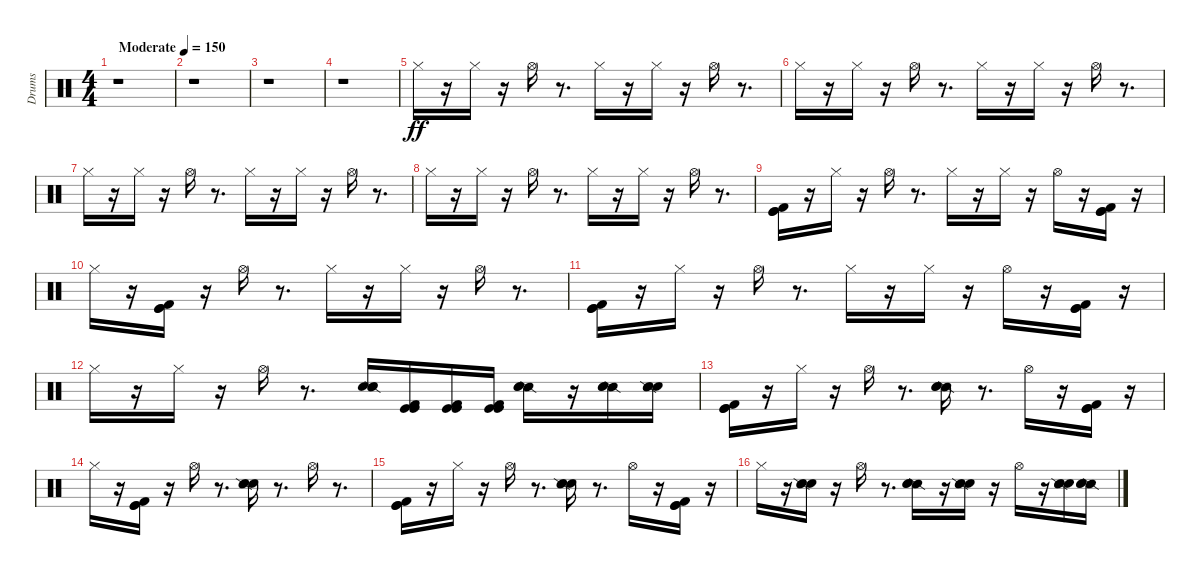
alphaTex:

\track ("Drums" "Drums") {instrument percussion}
\staff {score}
\articulation defaults
\ts (4 4)
\tempo (150 "Moderate")
\clef neutral
\ks c
r.1{dy ff} |
r.1 |
r.1 |
r.1 |
"Hi-Hat (closed)".16 r.16 "Hi-Hat (closed)".16 r.16 "Hi-Hat (open)".16 r.8{d} "Hi-Hat (closed)".16 r.16 "Hi-Hat (closed)".16 r.16 "Hi-Hat (open)".16 r.8{d} |
"Hi-Hat (closed)".16 r.16 "Hi-Hat (closed)".16 r.16 "Hi-Hat (open)".16 r.8{d} "Hi-Hat (closed)".16 r.16 "Hi-Hat (closed)".16 r.16 "Hi-Hat (open)".16 r.8{d} |
"Hi-Hat (closed)".16 r.16 "Hi-Hat (closed)".16 r.16 "Hi-Hat (open)".16 r.8{d} "Hi-Hat (closed)".16 r.16 "Hi-Hat (closed)".16 r.16 "Hi-Hat (open)".16 r.8{d} |
"Hi-Hat (closed)".16 r.16 "Hi-Hat (closed)".16 r.16 "Hi-Hat (open)".16 r.8{d} "Hi-Hat (closed)".16 r.16 "Hi-Hat (closed)".16 r.16 "Hi-Hat (open)".16 r.8{d} |
("Kick (hit)" "Kick (hit) 2" "Kick (hit)").16 r.16 "Hi-Hat (closed)".16 r.16 "Hi-Hat (open)".16 r.8{d} "Hi-Hat (closed)".16 r.16 "Hi-Hat (closed)".16 r.16 "Hi-Hat (open)".16 r.16 ("Kick (hit)" "Kick (hit) 2" "Kick (hit)").16 r.16 |
"Hi-Hat (closed)".16 r.16 ("Kick (hit)" "Kick (hit) 2" "Kick (hit)").16 r.16 "Hi-Hat (open)".16 r.8{d} "Hi-Hat (closed)".16 r.16 "Hi-Hat (closed)".16 r.16 "Hi-Hat (open)".16 r.8{d} |
("Kick (hit)" "Kick (hit) 2" "Kick (hit)").16 r.16 "Hi-Hat (closed)".16 r.16 "Hi-Hat (open)".16 r.8{d} "Hi-Hat (closed)".16 r.16 "Hi-Hat (closed)".16 r.16 "Hi-Hat (open)".16 r.16 ("Kick (hit)" "Kick (hit) 2" "Kick (hit)").16 r.16 |
"Hi-Hat (closed)".16 r.16 "Hi-Hat (closed)".16 r.16 "Hi-Hat (open)".16 r.8{d} ("Metronome (bell)" "Snare (side stick) 2" "Electric Snare (hit)").16 ("Kick (hit)" "Kick (hit) 2" "Kick (hit)").16 ("Kick (hit)" "Kick (hit) 2" "Kick (hit)").16 ("Kick (hit)" "Kick (hit) 2" "Kick (hit)").16 ("Snare (side stick) 2" "Metronome (bell)" "Electric Snare (hit)").16 r.16 ("Snare (side stick) 2" "Metronome (bell)" "Electric Snare (hit)").16 ("Metronome (bell)" "Snare (side stick) 2" "Electric Snare (hit)").16 |
("Kick (hit)" "Kick (hit) 2" "Kick (hit)").16 r.16 "Hi-Hat (closed)".16 r.16 "Hi-Hat (open)".16 r.8{d} ("Snare (side stick) 2" "Metronome (bell)" "Electric Snare (hit)").16 r.8{d} "Hi-Hat (open)".16 r.16 ("Kick (hit)" "Kick (hit) 2" "Kick (hit)").16 r.16 |
"Hi-Hat (closed)".16 r.16 ("Kick (hit)" "Kick (hit) 2" "Kick (hit)").16 r.16 "Hi-Hat (open)".16 r.8{d} ("Metronome (bell)" "Snare (side stick) 2" "Electric Snare (hit)").16 r.8{d} "Hi-Hat (open)".16 r.8{d} |
("Kick (hit)" "Kick (hit) 2" "Kick (hit)").16 r.16 "Hi-Hat (closed)".16 r.16 "Hi-Hat (open)".16 r.8{d} ("Metronome (bell)" "Snare (side stick) 2" "Electric Snare (hit)").16 r.8{d} "Hi-Hat (open)".16 r.16 ("Kick (hit)" "Kick (hit) 2" "Kick (hit)").16 r.16 |
"Hi-Hat (closed)".16 r.16 ("Metronome (bell)" "Snare (side stick) 2" "Electric Snare (hit)").16 r.16 "Hi-Hat (open)".16 r.8{d} ("Snare (side stick) 2" "Metronome (bell)" "Electric Snare (hit)").16 r.16 ("Metronome (bell)" "Snare (side stick) 2" "Electric Snare (hit)").16 r.16 "Hi-Hat (open)".16 r.16 ("Metronome (bell)" "Snare (side stick) 2" "Electric Snare (hit)").16 ("Snare (side stick) 2" "Metronome (bell)" "Electric Snare (hit)").16
